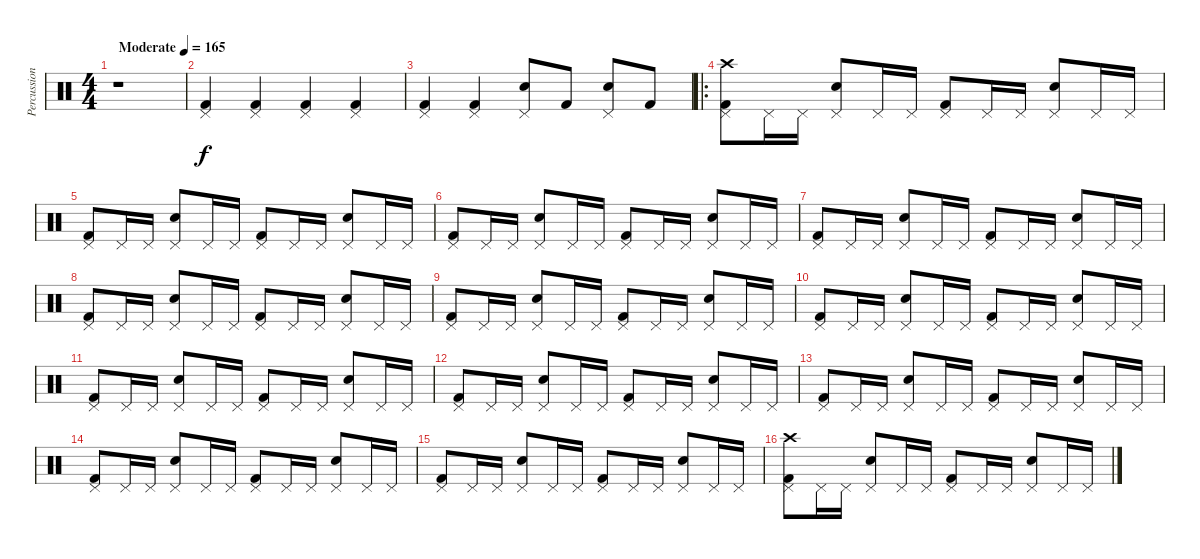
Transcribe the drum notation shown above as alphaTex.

\track ("Percussion" "Percussion") {instrument percussion}
\staff {score}
\articulation defaults
\ts (4 4)
\tempo (165 "Moderate")
\clef neutral
\ks c
r.1{dy f} |
("Pedal Hi-Hat (hit)" "Kick (hit) 2").4 ("Pedal Hi-Hat (hit)" "Kick (hit) 2").4 ("Pedal Hi-Hat (hit)" "Kick (hit) 2").4 ("Pedal Hi-Hat (hit)" "Kick (hit) 2").4 |
("Pedal Hi-Hat (hit)" "Kick (hit) 2").4 ("Pedal Hi-Hat (hit)" "Kick (hit) 2").4 ("Pedal Hi-Hat (hit)" "Snare (hit) 2").8 "Kick (hit) 2".8 ("Pedal Hi-Hat (hit)" "Snare (hit) 2").8 "Kick (hit) 2".8 |
\ro
("Pedal Hi-Hat (hit)" "Kick (hit) 2" "Crash high (hit)").8 "Pedal Hi-Hat (hit)".16 "Pedal Hi-Hat (hit)".16 ("Pedal Hi-Hat (hit)" "Snare (hit) 2").8 "Pedal Hi-Hat (hit)".16 "Pedal Hi-Hat (hit)".16 ("Pedal Hi-Hat (hit)" "Kick (hit) 2").8 "Pedal Hi-Hat (hit)".16 "Pedal Hi-Hat (hit)".16 ("Pedal Hi-Hat (hit)" "Snare (hit) 2").8 "Pedal Hi-Hat (hit)".16 "Pedal Hi-Hat (hit)".16 |
("Pedal Hi-Hat (hit)" "Kick (hit) 2").8 "Pedal Hi-Hat (hit)".16 "Pedal Hi-Hat (hit)".16 ("Pedal Hi-Hat (hit)" "Snare (hit) 2").8 "Pedal Hi-Hat (hit)".16 "Pedal Hi-Hat (hit)".16 ("Pedal Hi-Hat (hit)" "Kick (hit) 2").8 "Pedal Hi-Hat (hit)".16 "Pedal Hi-Hat (hit)".16 ("Pedal Hi-Hat (hit)" "Snare (hit) 2").8 "Pedal Hi-Hat (hit)".16 "Pedal Hi-Hat (hit)".16 |
("Pedal Hi-Hat (hit)" "Kick (hit) 2").8 "Pedal Hi-Hat (hit)".16 "Pedal Hi-Hat (hit)".16 ("Pedal Hi-Hat (hit)" "Snare (hit) 2").8 "Pedal Hi-Hat (hit)".16 "Pedal Hi-Hat (hit)".16 ("Pedal Hi-Hat (hit)" "Kick (hit) 2").8 "Pedal Hi-Hat (hit)".16 "Pedal Hi-Hat (hit)".16 ("Pedal Hi-Hat (hit)" "Snare (hit) 2").8 "Pedal Hi-Hat (hit)".16 "Pedal Hi-Hat (hit)".16 |
("Pedal Hi-Hat (hit)" "Kick (hit) 2").8 "Pedal Hi-Hat (hit)".16 "Pedal Hi-Hat (hit)".16 ("Pedal Hi-Hat (hit)" "Snare (hit) 2").8 "Pedal Hi-Hat (hit)".16 "Pedal Hi-Hat (hit)".16 ("Pedal Hi-Hat (hit)" "Kick (hit) 2").8 "Pedal Hi-Hat (hit)".16 "Pedal Hi-Hat (hit)".16 ("Pedal Hi-Hat (hit)" "Snare (hit) 2").8 "Pedal Hi-Hat (hit)".16 "Pedal Hi-Hat (hit)".16 |
("Pedal Hi-Hat (hit)" "Kick (hit) 2").8 "Pedal Hi-Hat (hit)".16 "Pedal Hi-Hat (hit)".16 ("Pedal Hi-Hat (hit)" "Snare (hit) 2").8 "Pedal Hi-Hat (hit)".16 "Pedal Hi-Hat (hit)".16 ("Pedal Hi-Hat (hit)" "Kick (hit) 2").8 "Pedal Hi-Hat (hit)".16 "Pedal Hi-Hat (hit)".16 ("Pedal Hi-Hat (hit)" "Snare (hit) 2").8 "Pedal Hi-Hat (hit)".16 "Pedal Hi-Hat (hit)".16 |
("Pedal Hi-Hat (hit)" "Kick (hit) 2").8 "Pedal Hi-Hat (hit)".16 "Pedal Hi-Hat (hit)".16 ("Pedal Hi-Hat (hit)" "Snare (hit) 2").8 "Pedal Hi-Hat (hit)".16 "Pedal Hi-Hat (hit)".16 ("Pedal Hi-Hat (hit)" "Kick (hit) 2").8 "Pedal Hi-Hat (hit)".16 "Pedal Hi-Hat (hit)".16 ("Pedal Hi-Hat (hit)" "Snare (hit) 2").8 "Pedal Hi-Hat (hit)".16 "Pedal Hi-Hat (hit)".16 |
("Pedal Hi-Hat (hit)" "Kick (hit) 2").8 "Pedal Hi-Hat (hit)".16 "Pedal Hi-Hat (hit)".16 ("Pedal Hi-Hat (hit)" "Snare (hit) 2").8 "Pedal Hi-Hat (hit)".16 "Pedal Hi-Hat (hit)".16 ("Pedal Hi-Hat (hit)" "Kick (hit) 2").8 "Pedal Hi-Hat (hit)".16 "Pedal Hi-Hat (hit)".16 ("Pedal Hi-Hat (hit)" "Snare (hit) 2").8 "Pedal Hi-Hat (hit)".16 "Pedal Hi-Hat (hit)".16 |
("Pedal Hi-Hat (hit)" "Kick (hit) 2").8 "Pedal Hi-Hat (hit)".16 "Pedal Hi-Hat (hit)".16 ("Pedal Hi-Hat (hit)" "Snare (hit) 2").8 "Pedal Hi-Hat (hit)".16 "Pedal Hi-Hat (hit)".16 ("Pedal Hi-Hat (hit)" "Kick (hit) 2").8 "Pedal Hi-Hat (hit)".16 "Pedal Hi-Hat (hit)".16 ("Pedal Hi-Hat (hit)" "Snare (hit) 2").8 "Pedal Hi-Hat (hit)".16 "Pedal Hi-Hat (hit)".16 |
("Pedal Hi-Hat (hit)" "Kick (hit) 2").8 "Pedal Hi-Hat (hit)".16 "Pedal Hi-Hat (hit)".16 ("Pedal Hi-Hat (hit)" "Snare (hit) 2").8 "Pedal Hi-Hat (hit)".16 "Pedal Hi-Hat (hit)".16 ("Pedal Hi-Hat (hit)" "Kick (hit) 2").8 "Pedal Hi-Hat (hit)".16 "Pedal Hi-Hat (hit)".16 ("Pedal Hi-Hat (hit)" "Snare (hit) 2").8 "Pedal Hi-Hat (hit)".16 "Pedal Hi-Hat (hit)".16 |
("Pedal Hi-Hat (hit)" "Kick (hit) 2").8 "Pedal Hi-Hat (hit)".16 "Pedal Hi-Hat (hit)".16 ("Pedal Hi-Hat (hit)" "Snare (hit) 2").8 "Pedal Hi-Hat (hit)".16 "Pedal Hi-Hat (hit)".16 ("Pedal Hi-Hat (hit)" "Kick (hit) 2").8 "Pedal Hi-Hat (hit)".16 "Pedal Hi-Hat (hit)".16 ("Pedal Hi-Hat (hit)" "Snare (hit) 2").8 "Pedal Hi-Hat (hit)".16 "Pedal Hi-Hat (hit)".16 |
("Pedal Hi-Hat (hit)" "Kick (hit) 2").8 "Pedal Hi-Hat (hit)".16 "Pedal Hi-Hat (hit)".16 ("Pedal Hi-Hat (hit)" "Snare (hit) 2").8 "Pedal Hi-Hat (hit)".16 "Pedal Hi-Hat (hit)".16 ("Pedal Hi-Hat (hit)" "Kick (hit) 2").8 "Pedal Hi-Hat (hit)".16 "Pedal Hi-Hat (hit)".16 ("Pedal Hi-Hat (hit)" "Snare (hit) 2").8 "Pedal Hi-Hat (hit)".16 "Pedal Hi-Hat (hit)".16 |
("Pedal Hi-Hat (hit)" "Kick (hit) 2").8 "Pedal Hi-Hat (hit)".16 "Pedal Hi-Hat (hit)".16 ("Pedal Hi-Hat (hit)" "Snare (hit) 2").8 "Pedal Hi-Hat (hit)".16 "Pedal Hi-Hat (hit)".16 ("Pedal Hi-Hat (hit)" "Kick (hit) 2").8 "Pedal Hi-Hat (hit)".16 "Pedal Hi-Hat (hit)".16 ("Pedal Hi-Hat (hit)" "Snare (hit) 2").8 "Pedal Hi-Hat (hit)".16 "Pedal Hi-Hat (hit)".16 |
("Pedal Hi-Hat (hit)" "Kick (hit) 2" "Crash high (hit)").8 "Pedal Hi-Hat (hit)".16 "Pedal Hi-Hat (hit)".16 ("Pedal Hi-Hat (hit)" "Snare (hit) 2").8 "Pedal Hi-Hat (hit)".16 "Pedal Hi-Hat (hit)".16 ("Pedal Hi-Hat (hit)" "Kick (hit) 2").8 "Pedal Hi-Hat (hit)".16 "Pedal Hi-Hat (hit)".16 ("Pedal Hi-Hat (hit)" "Snare (hit) 2").8 "Pedal Hi-Hat (hit)".16 "Pedal Hi-Hat (hit)".16
